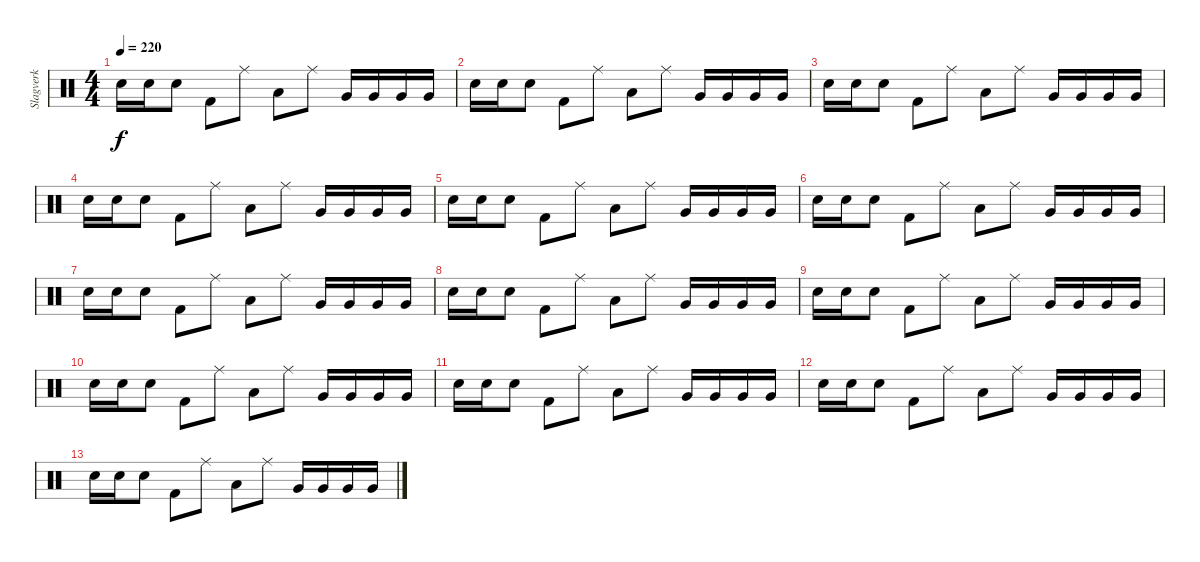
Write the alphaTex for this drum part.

\track ("Slagverk" "Slagverk") {instrument percussion}
\staff {score}
\articulation defaults
\ts (4 4)
\tempo 220
\clef neutral
\ks c "Electric Snare (hit)".16{dy f} "Electric Snare (hit)".16 "Electric Snare (hit)".8 "Kick (hit) 2".8 "Ride (middle)".8 "Low Tom (hit)".8 "Ride (middle)".8 "Very Low Tom (hit)".16 "Very Low Tom (hit)".16 "Very Low Tom (hit)".16 "Very Low Tom (hit)".16
|
"Electric Snare (hit)".16 "Electric Snare (hit)".16 "Electric Snare (hit)".8 "Kick (hit) 2".8 "Ride (middle)".8 "Low Tom (hit)".8 "Ride (middle)".8 "Very Low Tom (hit)".16 "Very Low Tom (hit)".16 "Very Low Tom (hit)".16 "Very Low Tom (hit)".16 |
"Electric Snare (hit)".16 "Electric Snare (hit)".16 "Electric Snare (hit)".8 "Kick (hit) 2".8 "Ride (middle)".8 "Low Tom (hit)".8 "Ride (middle)".8 "Very Low Tom (hit)".16 "Very Low Tom (hit)".16 "Very Low Tom (hit)".16 "Very Low Tom (hit)".16 |
"Electric Snare (hit)".16 "Electric Snare (hit)".16 "Electric Snare (hit)".8 "Kick (hit) 2".8 "Ride (middle)".8 "Low Tom (hit)".8 "Ride (middle)".8 "Very Low Tom (hit)".16 "Very Low Tom (hit)".16 "Very Low Tom (hit)".16 "Very Low Tom (hit)".16 |
"Electric Snare (hit)".16 "Electric Snare (hit)".16 "Electric Snare (hit)".8 "Kick (hit) 2".8 "Ride (middle)".8 "Low Tom (hit)".8 "Ride (middle)".8 "Very Low Tom (hit)".16 "Very Low Tom (hit)".16 "Very Low Tom (hit)".16 "Very Low Tom (hit)".16 |
"Electric Snare (hit)".16{volume 11} "Electric Snare (hit)".16 "Electric Snare (hit)".8 "Kick (hit) 2".8 "Ride (middle)".8 "Low Tom (hit)".8 "Ride (middle)".8 "Very Low Tom (hit)".16 "Very Low Tom (hit)".16 "Very Low Tom (hit)".16 "Very Low Tom (hit)".16 |
"Electric Snare (hit)".16{volume 9} "Electric Snare (hit)".16 "Electric Snare (hit)".8 "Kick (hit) 2".8 "Ride (middle)".8 "Low Tom (hit)".8 "Ride (middle)".8 "Very Low Tom (hit)".16 "Very Low Tom (hit)".16 "Very Low Tom (hit)".16 "Very Low Tom (hit)".16 |
"Electric Snare (hit)".16{volume 7} "Electric Snare (hit)".16 "Electric Snare (hit)".8 "Kick (hit) 2".8 "Ride (middle)".8 "Low Tom (hit)".8 "Ride (middle)".8 "Very Low Tom (hit)".16 "Very Low Tom (hit)".16 "Very Low Tom (hit)".16 "Very Low Tom (hit)".16 |
"Electric Snare (hit)".16{volume 5} "Electric Snare (hit)".16 "Electric Snare (hit)".8 "Kick (hit) 2".8 "Ride (middle)".8 "Low Tom (hit)".8 "Ride (middle)".8 "Very Low Tom (hit)".16 "Very Low Tom (hit)".16 "Very Low Tom (hit)".16 "Very Low Tom (hit)".16 |
"Electric Snare (hit)".16{volume 4} "Electric Snare (hit)".16 "Electric Snare (hit)".8 "Kick (hit) 2".8 "Ride (middle)".8 "Low Tom (hit)".8 "Ride (middle)".8 "Very Low Tom (hit)".16 "Very Low Tom (hit)".16 "Very Low Tom (hit)".16 "Very Low Tom (hit)".16 |
"Electric Snare (hit)".16{volume 3} "Electric Snare (hit)".16 "Electric Snare (hit)".8 "Kick (hit) 2".8 "Ride (middle)".8 "Low Tom (hit)".8 "Ride (middle)".8 "Very Low Tom (hit)".16 "Very Low Tom (hit)".16 "Very Low Tom (hit)".16 "Very Low Tom (hit)".16 |
"Electric Snare (hit)".16{volume 2} "Electric Snare (hit)".16 "Electric Snare (hit)".8 "Kick (hit) 2".8 "Ride (middle)".8 "Low Tom (hit)".8 "Ride (middle)".8 "Very Low Tom (hit)".16 "Very Low Tom (hit)".16 "Very Low Tom (hit)".16 "Very Low Tom (hit)".16 |
"Electric Snare (hit)".16{volume 1} "Electric Snare (hit)".16 "Electric Snare (hit)".8 "Kick (hit) 2".8 "Ride (middle)".8 "Low Tom (hit)".8 "Ride (middle)".8 "Very Low Tom (hit)".16 "Very Low Tom (hit)".16 "Very Low Tom (hit)".16 "Very Low Tom (hit)".16
